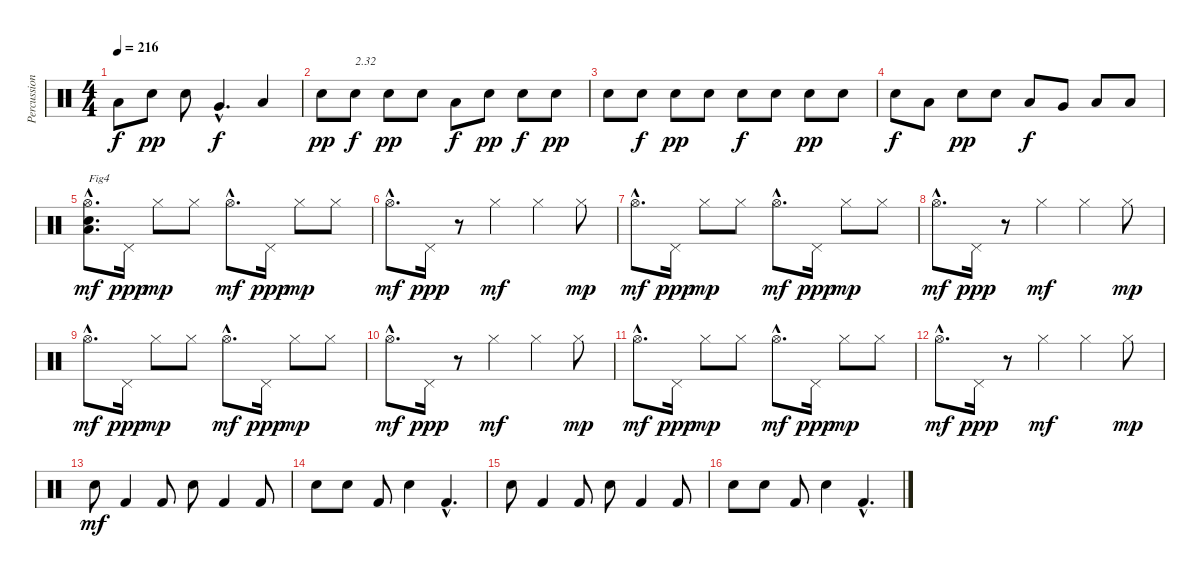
\track ("Percussion" "Percussion") {instrument percussion}
\staff {score}
\articulation defaults
\ts (4 4)
\tempo 216
\clef neutral
\ks c "Low Floor Tom (hit)".8{dy f} "Electric Snare (hit)".8{dy pp} "Electric Snare (hit)".8 "Very Low Tom (hit)"{hac}.4{d dy f} "Low Floor Tom (hit)".4
|
"Electric Snare (hit)".8{dy pp} "Electric Snare (hit)".8{txt "2.32" dy f} "Electric Snare (hit)".8{dy pp} "Electric Snare (hit)".8 "Low Floor Tom (hit)".8{dy f} "Electric Snare (hit)".8{dy pp} "Electric Snare (hit)".8{dy f} "Electric Snare (hit)".8{dy pp} |
"Electric Snare (hit)".8 "Electric Snare (hit)".8{dy f} "Electric Snare (hit)".8{dy pp} "Electric Snare (hit)".8 "Electric Snare (hit)".8{dy f} "Electric Snare (hit)".8 "Electric Snare (hit)".8{dy pp} "Electric Snare (hit)".8 |
"Electric Snare (hit)".8{dy f} "Low Tom (hit)".8 "Electric Snare (hit)".8{dy pp} "Electric Snare (hit)".8 "Low Tom (hit)".8{dy f} "Very Low Tom (hit)".8 "Low Tom (hit)".8 "Low Floor Tom (hit)".8 |
("Low Floor Tom (hit)"{hac} "Electric Snare (hit)"{hac} "Hi-Hat (open)"{hac}).8{d txt "Fig4" dy mf} "Pedal Hi-Hat (hit)".16{dy ppp} "Hi-Hat (closed)".8{dy mp} "Hi-Hat (closed)".8 "Hi-Hat (open)"{hac}.8{d dy mf} "Pedal Hi-Hat (hit)".16{dy ppp} "Hi-Hat (closed)".8{dy mp} "Hi-Hat (closed)".8 |
"Hi-Hat (open)"{hac}.8{d dy mf} "Pedal Hi-Hat (hit)".16{dy ppp} r.8 "Hi-Hat (closed)".4{dy mf} "Hi-Hat (closed)".4 "Hi-Hat (closed)".8{dy mp} |
"Hi-Hat (open)"{hac}.8{d dy mf} "Pedal Hi-Hat (hit)".16{dy ppp} "Hi-Hat (closed)".8{dy mp} "Hi-Hat (closed)".8 "Hi-Hat (open)"{hac}.8{d dy mf} "Pedal Hi-Hat (hit)".16{dy ppp} "Hi-Hat (closed)".8{dy mp} "Hi-Hat (closed)".8 |
"Hi-Hat (open)"{hac}.8{d dy mf} "Pedal Hi-Hat (hit)".16{dy ppp} r.8 "Hi-Hat (closed)".4{dy mf} "Hi-Hat (closed)".4 "Hi-Hat (closed)".8{dy mp} |
"Hi-Hat (open)"{hac}.8{d dy mf} "Pedal Hi-Hat (hit)".16{dy ppp} "Hi-Hat (closed)".8{dy mp} "Hi-Hat (closed)".8 "Hi-Hat (open)"{hac}.8{d dy mf} "Pedal Hi-Hat (hit)".16{dy ppp} "Hi-Hat (closed)".8{dy mp} "Hi-Hat (closed)".8 |
"Hi-Hat (open)"{hac}.8{d dy mf} "Pedal Hi-Hat (hit)".16{dy ppp} r.8 "Hi-Hat (closed)".4{dy mf} "Hi-Hat (closed)".4 "Hi-Hat (closed)".8{dy mp} |
"Hi-Hat (open)"{hac}.8{d dy mf} "Pedal Hi-Hat (hit)".16{dy ppp} "Hi-Hat (closed)".8{dy mp} "Hi-Hat (closed)".8 "Hi-Hat (open)"{hac}.8{d dy mf} "Pedal Hi-Hat (hit)".16{dy ppp} "Hi-Hat (closed)".8{dy mp} "Hi-Hat (closed)".8 |
"Hi-Hat (open)"{hac}.8{d dy mf} "Pedal Hi-Hat (hit)".16{dy ppp} r.8 "Hi-Hat (closed)".4{dy mf} "Hi-Hat (closed)".4 "Hi-Hat (closed)".8{dy mp} |
"Snare (hit) 2".8{dy mf} "Kick (hit) 2".4 "Kick (hit) 2".8 "Snare (hit) 2".8 "Kick (hit) 2".4 "Kick (hit) 2".8 |
"Snare (hit) 2".8 "Snare (hit) 2".8 "Kick (hit) 2".8 "Snare (hit) 2".4 "Kick (hit) 2"{hac}.4{d} |
"Snare (hit) 2".8 "Kick (hit) 2".4 "Kick (hit) 2".8 "Snare (hit) 2".8 "Kick (hit) 2".4 "Kick (hit) 2".8 |
"Snare (hit) 2".8 "Snare (hit) 2".8 "Kick (hit) 2".8 "Snare (hit) 2".4 "Kick (hit) 2"{hac}.4{d}
